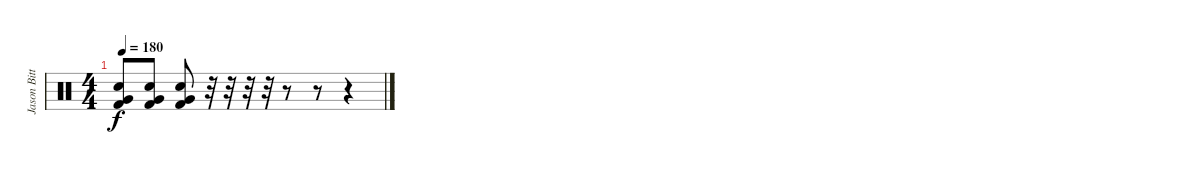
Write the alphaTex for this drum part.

\track ("Jason Bittner" "Jason Bitt") {instrument percussion}
\staff {score}
\articulation defaults
\ts (4 4)
\tempo 180
\clef neutral
\ks c
("Very Low Tom (hit)" "Electric Snare (hit)" "Kick (hit) 2").8{dy f} ("Very Low Tom (hit)" "Electric Snare (hit)" "Kick (hit) 2").8 ("Very Low Tom (hit)" "Electric Snare (hit)" "Kick (hit) 2").8 r.32 r.32 r.32 r.32 r.8 r.8 r.4
